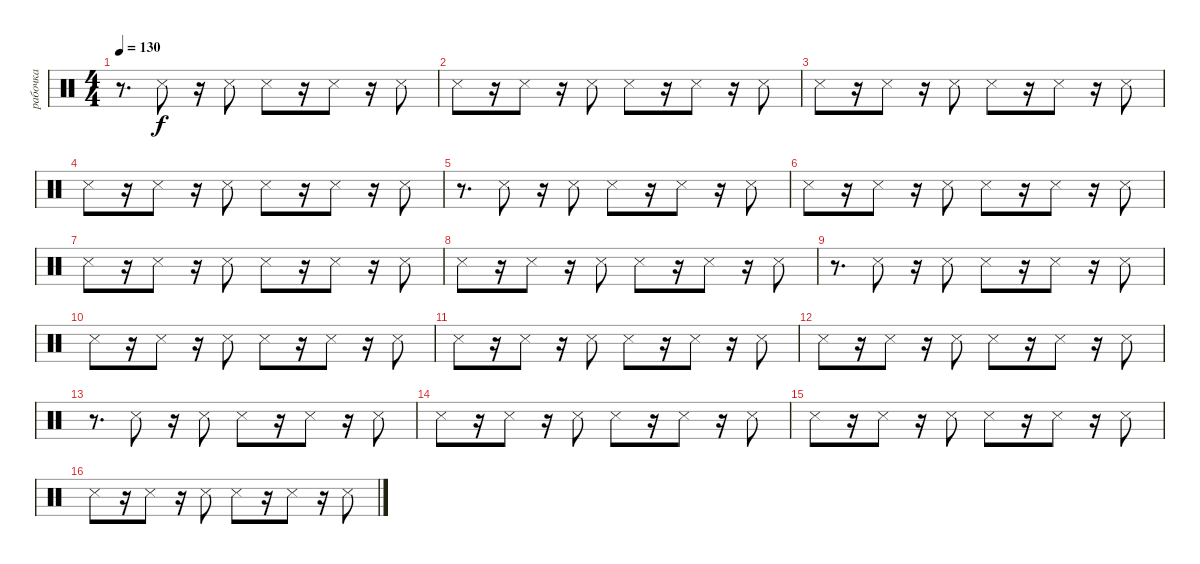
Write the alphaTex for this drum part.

\track ("рабочка" "рабочка") {instrument percussion}
\staff {score}
\articulation defaults
\ts (4 4)
\tempo 130
\clef neutral
\ks c
r.8{d dy f} "Snare (side stick) 3".8 r.16 "Snare (side stick) 3".8 "Snare (side stick) 3".8 r.16 "Snare (side stick) 3".8 r.16 "Snare (side stick) 3".8 |
"Snare (side stick) 3".8 r.16 "Snare (side stick) 3".8 r.16 "Snare (side stick) 3".8 "Snare (side stick) 3".8 r.16 "Snare (side stick) 3".8 r.16 "Snare (side stick) 3".8 |
"Snare (side stick) 3".8 r.16 "Snare (side stick) 3".8 r.16 "Snare (side stick) 3".8 "Snare (side stick) 3".8 r.16 "Snare (side stick) 3".8 r.16 "Snare (side stick) 3".8 |
"Snare (side stick) 3".8 r.16 "Snare (side stick) 3".8 r.16 "Snare (side stick) 3".8 "Snare (side stick) 3".8 r.16 "Snare (side stick) 3".8 r.16 "Snare (side stick) 3".8 |
r.8{d} "Snare (side stick) 3".8 r.16 "Snare (side stick) 3".8 "Snare (side stick) 3".8 r.16 "Snare (side stick) 3".8 r.16 "Snare (side stick) 3".8 |
"Snare (side stick) 3".8 r.16 "Snare (side stick) 3".8 r.16 "Snare (side stick) 3".8 "Snare (side stick) 3".8 r.16 "Snare (side stick) 3".8 r.16 "Snare (side stick) 3".8 |
"Snare (side stick) 3".8 r.16 "Snare (side stick) 3".8 r.16 "Snare (side stick) 3".8 "Snare (side stick) 3".8 r.16 "Snare (side stick) 3".8 r.16 "Snare (side stick) 3".8 |
"Snare (side stick) 3".8 r.16 "Snare (side stick) 3".8 r.16 "Snare (side stick) 3".8 "Snare (side stick) 3".8 r.16 "Snare (side stick) 3".8 r.16 "Snare (side stick) 3".8 |
r.8{d} "Snare (side stick) 3".8 r.16 "Snare (side stick) 3".8 "Snare (side stick) 3".8 r.16 "Snare (side stick) 3".8 r.16 "Snare (side stick) 3".8 |
"Snare (side stick) 3".8 r.16 "Snare (side stick) 3".8 r.16 "Snare (side stick) 3".8 "Snare (side stick) 3".8 r.16 "Snare (side stick) 3".8 r.16 "Snare (side stick) 3".8 |
"Snare (side stick) 3".8 r.16 "Snare (side stick) 3".8 r.16 "Snare (side stick) 3".8 "Snare (side stick) 3".8 r.16 "Snare (side stick) 3".8 r.16 "Snare (side stick) 3".8 |
"Snare (side stick) 3".8 r.16 "Snare (side stick) 3".8 r.16 "Snare (side stick) 3".8 "Snare (side stick) 3".8 r.16 "Snare (side stick) 3".8 r.16 "Snare (side stick) 3".8 |
r.8{d} "Snare (side stick) 3".8 r.16 "Snare (side stick) 3".8 "Snare (side stick) 3".8 r.16 "Snare (side stick) 3".8 r.16 "Snare (side stick) 3".8 |
"Snare (side stick) 3".8 r.16 "Snare (side stick) 3".8 r.16 "Snare (side stick) 3".8 "Snare (side stick) 3".8 r.16 "Snare (side stick) 3".8 r.16 "Snare (side stick) 3".8 |
"Snare (side stick) 3".8 r.16 "Snare (side stick) 3".8 r.16 "Snare (side stick) 3".8 "Snare (side stick) 3".8 r.16 "Snare (side stick) 3".8 r.16 "Snare (side stick) 3".8 |
"Snare (side stick) 3".8 r.16 "Snare (side stick) 3".8 r.16 "Snare (side stick) 3".8 "Snare (side stick) 3".8 r.16 "Snare (side stick) 3".8 r.16 "Snare (side stick) 3".8
